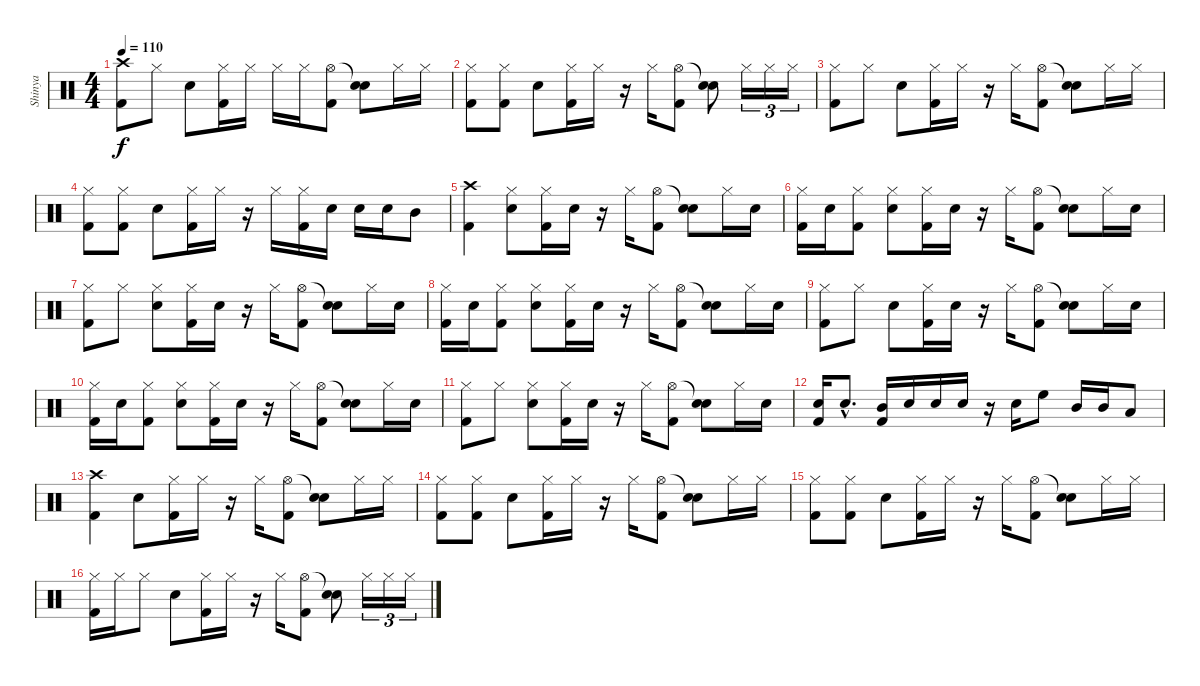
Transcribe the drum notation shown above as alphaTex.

\track ("Shinya" "Shinya") {instrument percussion}
\staff {score}
\articulation defaults
\ts (4 4)
\tempo 110
\clef neutral
\ks c
("Crash high (hit)" "Kick (hit) 2").8{dy f} "Hi-Hat (closed)".8 "Snare (hit) 2".8 ("Hi-Hat (closed)" "Kick (hit) 2").16 "Hi-Hat (closed)".16 "Hi-Hat (closed)".16 "Hi-Hat (closed)".16 ("Hi-Hat (open)" "Kick (hit) 2").8 ("Snare (hit)"{t} "Snare (hit) 2").8 "Hi-Hat (closed)".16 "Hi-Hat (closed)".16 |
("Kick (hit) 2" "Hi-Hat (closed)").8 ("Kick (hit) 2" "Hi-Hat (closed)").8 "Snare (hit) 2".8 ("Hi-Hat (closed)" "Kick (hit) 2").16 "Hi-Hat (closed)".16 r.16 "Hi-Hat (closed)".16 ("Hi-Hat (open)" "Kick (hit) 2").8 ("Snare (hit)"{t} "Snare (hit) 2").8 "Hi-Hat (closed)".16{tu (3 2)} "Hi-Hat (closed)".16{tu (3 2)} "Hi-Hat (closed)".16{tu (3 2)} |
("Hi-Hat (closed)" "Kick (hit) 2").8 "Hi-Hat (closed)".8 "Snare (hit) 2".8 ("Hi-Hat (closed)" "Kick (hit) 2").16 "Hi-Hat (closed)".16 r.16 "Hi-Hat (closed)".16 ("Hi-Hat (open)" "Kick (hit) 2").8 ("Snare (hit)"{t} "Snare (hit) 2").8 "Hi-Hat (closed)".16 "Hi-Hat (closed)".16 |
("Hi-Hat (closed)" "Kick (hit) 2").8 ("Hi-Hat (closed)" "Kick (hit) 2").8 "Snare (hit) 2".8 ("Hi-Hat (closed)" "Kick (hit) 2").16 "Hi-Hat (closed)".16 r.16 "Hi-Hat (closed)".16 ("Hi-Hat (closed)" "Kick (hit) 2").16 "Snare (hit) 2".16 "Snare (hit) 2".16 "Snare (hit) 2".16 "Mid Tom (hit)".8 |
("Crash high (hit)" "Kick (hit) 2").4 ("Hi-Hat (closed)" "Snare (hit) 2").8 ("Hi-Hat (closed)" "Kick (hit) 2").16 "Snare (hit) 2".16 r.16 "Hi-Hat (closed)".16 ("Hi-Hat (open)" "Kick (hit) 2").8 ("Snare (hit)"{t} "Snare (hit) 2").8 "Hi-Hat (closed)".16 "Snare (hit) 2".16 |
("Hi-Hat (closed)" "Kick (hit) 2").16 "Snare (hit) 2".16 ("Hi-Hat (closed)" "Kick (hit) 2").8 ("Hi-Hat (closed)" "Snare (hit) 2").8 ("Hi-Hat (closed)" "Kick (hit) 2").16 "Snare (hit) 2".16 r.16 "Hi-Hat (closed)".16 ("Hi-Hat (open)" "Kick (hit) 2").8 ("Snare (hit)"{t} "Snare (hit) 2").8 "Hi-Hat (closed)".16 "Snare (hit) 2".16 |
("Hi-Hat (closed)" "Kick (hit) 2").8 "Hi-Hat (closed)".8 ("Hi-Hat (closed)" "Snare (hit) 2").8 ("Hi-Hat (closed)" "Kick (hit) 2").16 "Snare (hit) 2".16 r.16 "Hi-Hat (closed)".16 ("Hi-Hat (open)" "Kick (hit) 2").8 ("Snare (hit)"{t} "Snare (hit) 2").8 "Hi-Hat (closed)".16 "Snare (hit) 2".16 |
("Hi-Hat (closed)" "Kick (hit) 2").16 "Snare (hit) 2".16 ("Hi-Hat (closed)" "Kick (hit) 2").8 ("Hi-Hat (closed)" "Snare (hit) 2").8 ("Hi-Hat (closed)" "Kick (hit) 2").16 "Snare (hit) 2".16 r.16 "Hi-Hat (closed)".16 ("Hi-Hat (open)" "Kick (hit) 2").8 ("Snare (hit)"{t} "Snare (hit) 2").8 "Hi-Hat (closed)".16 "Snare (hit) 2".16 |
("Hi-Hat (closed)" "Kick (hit) 2").8 "Hi-Hat (closed)".8 "Snare (hit) 2".8 ("Hi-Hat (closed)" "Kick (hit) 2").16 "Snare (hit) 2".16 r.16 "Hi-Hat (closed)".16 ("Hi-Hat (open)" "Kick (hit) 2").8 ("Snare (hit)"{t} "Snare (hit) 2").8 "Hi-Hat (closed)".16 "Snare (hit) 2".16 |
("Hi-Hat (closed)" "Kick (hit) 2").16 "Snare (hit) 2".16 ("Hi-Hat (closed)" "Kick (hit) 2").8 ("Hi-Hat (closed)" "Snare (hit) 2").8 ("Hi-Hat (closed)" "Kick (hit) 2").16 "Snare (hit) 2".16 r.16 "Hi-Hat (closed)".16 ("Hi-Hat (open)" "Kick (hit) 2").8 ("Snare (hit)"{t} "Snare (hit) 2").8 "Hi-Hat (closed)".16 "Snare (hit) 2".16 |
("Hi-Hat (closed)" "Kick (hit) 2").8 "Hi-Hat (closed)".8 ("Hi-Hat (closed)" "Snare (hit) 2").8 ("Hi-Hat (closed)" "Kick (hit) 2").16 "Snare (hit) 2".16 r.16 "Hi-Hat (closed)".16 ("Hi-Hat (open)" "Kick (hit) 2").8 ("Snare (hit)"{t} "Snare (hit) 2").8 "Hi-Hat (closed)".16 "Snare (hit) 2".16 |
("Snare (hit) 2" "Kick (hit) 2").16 "Snare (hit) 2"{hac}.8{d} ("Mid Tom (hit)" "Kick (hit) 2").16 "Snare (hit) 2".16 "Snare (hit) 2".16 "Snare (hit) 2".16 r.16 "Snare (hit) 2".16 "High Floor Tom (hit)".8 "Mid Tom (hit)".16 "Mid Tom (hit)".16 "Low Tom (hit)".8 |
("Crash high (hit)" "Kick (hit) 2").4 "Snare (hit) 2".8 ("Hi-Hat (closed)" "Kick (hit) 2").16 "Hi-Hat (closed)".16 r.16 "Hi-Hat (closed)".16 ("Hi-Hat (open)" "Kick (hit) 2").8 ("Snare (hit)"{t} "Snare (hit) 2").8 "Hi-Hat (closed)".16 "Hi-Hat (closed)".16 |
("Hi-Hat (closed)" "Kick (hit) 2").8 ("Hi-Hat (closed)" "Kick (hit) 2").8 "Snare (hit) 2".8 ("Hi-Hat (closed)" "Kick (hit) 2").16 "Hi-Hat (closed)".16 r.16 "Hi-Hat (closed)".16 ("Hi-Hat (open)" "Kick (hit) 2").8 ("Snare (hit)"{t} "Snare (hit) 2").8 "Hi-Hat (closed)".16 "Hi-Hat (closed)".16 |
("Hi-Hat (closed)" "Kick (hit) 2").8 ("Hi-Hat (closed)" "Kick (hit) 2").8 "Snare (hit) 2".8 ("Hi-Hat (closed)" "Kick (hit) 2").16 "Hi-Hat (closed)".16 r.16 "Hi-Hat (closed)".16 ("Hi-Hat (open)" "Kick (hit) 2").8 ("Snare (hit)"{t} "Snare (hit) 2").8 "Hi-Hat (closed)".16 "Hi-Hat (closed)".16 |
("Hi-Hat (closed)" "Kick (hit) 2").16 "Hi-Hat (closed)".16 "Hi-Hat (closed)".8 "Snare (hit) 2".8 ("Hi-Hat (closed)" "Kick (hit) 2").16 "Hi-Hat (closed)".16 r.16 "Hi-Hat (closed)".16 ("Hi-Hat (open)" "Kick (hit) 2").8 ("Snare (hit) 2"{t} "Snare (hit) 2").8 "Hi-Hat (closed)".16{tu (3 2)} "Hi-Hat (closed)".16{tu (3 2)} "Hi-Hat (closed)".16{tu (3 2)}
